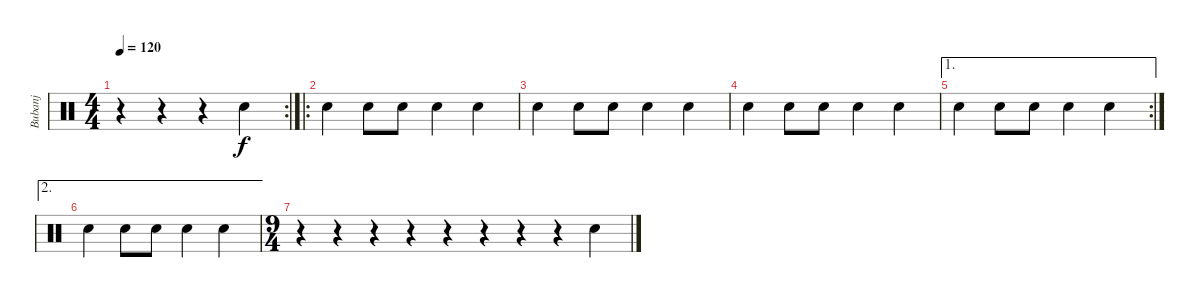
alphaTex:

\track ("Bubanj" "Bubanj") {instrument percussion}
\staff {score}
\articulation defaults
\rc 2
\ts (4 4)
\tempo 120
\clef neutral
\ks c
r.4{dy f} r.4 r.4 "Snare (hit) 2".4 |
\ro "Snare (hit) 2".4 "Snare (hit) 2".8 "Snare (hit) 2".8 "Snare (hit) 2".4 "Snare (hit) 2".4
|
"Snare (hit) 2".4 "Snare (hit) 2".8 "Snare (hit) 2".8 "Snare (hit) 2".4 "Snare (hit) 2".4 |
"Snare (hit) 2".4 "Snare (hit) 2".8 "Snare (hit) 2".8 "Snare (hit) 2".4 "Snare (hit) 2".4 |
\ae 1
\rc 2 "Snare (hit) 2".4 "Snare (hit) 2".8 "Snare (hit) 2".8 "Snare (hit) 2".4 "Snare (hit) 2".4
|
\ae 2 "Snare (hit) 2".4 "Snare (hit) 2".8 "Snare (hit) 2".8 "Snare (hit) 2".4 "Snare (hit) 2".4
|
\ts (9 4)
r.4 r.4 r.4 r.4 r.4 r.4 r.4 r.4 "Snare (hit) 2".4
